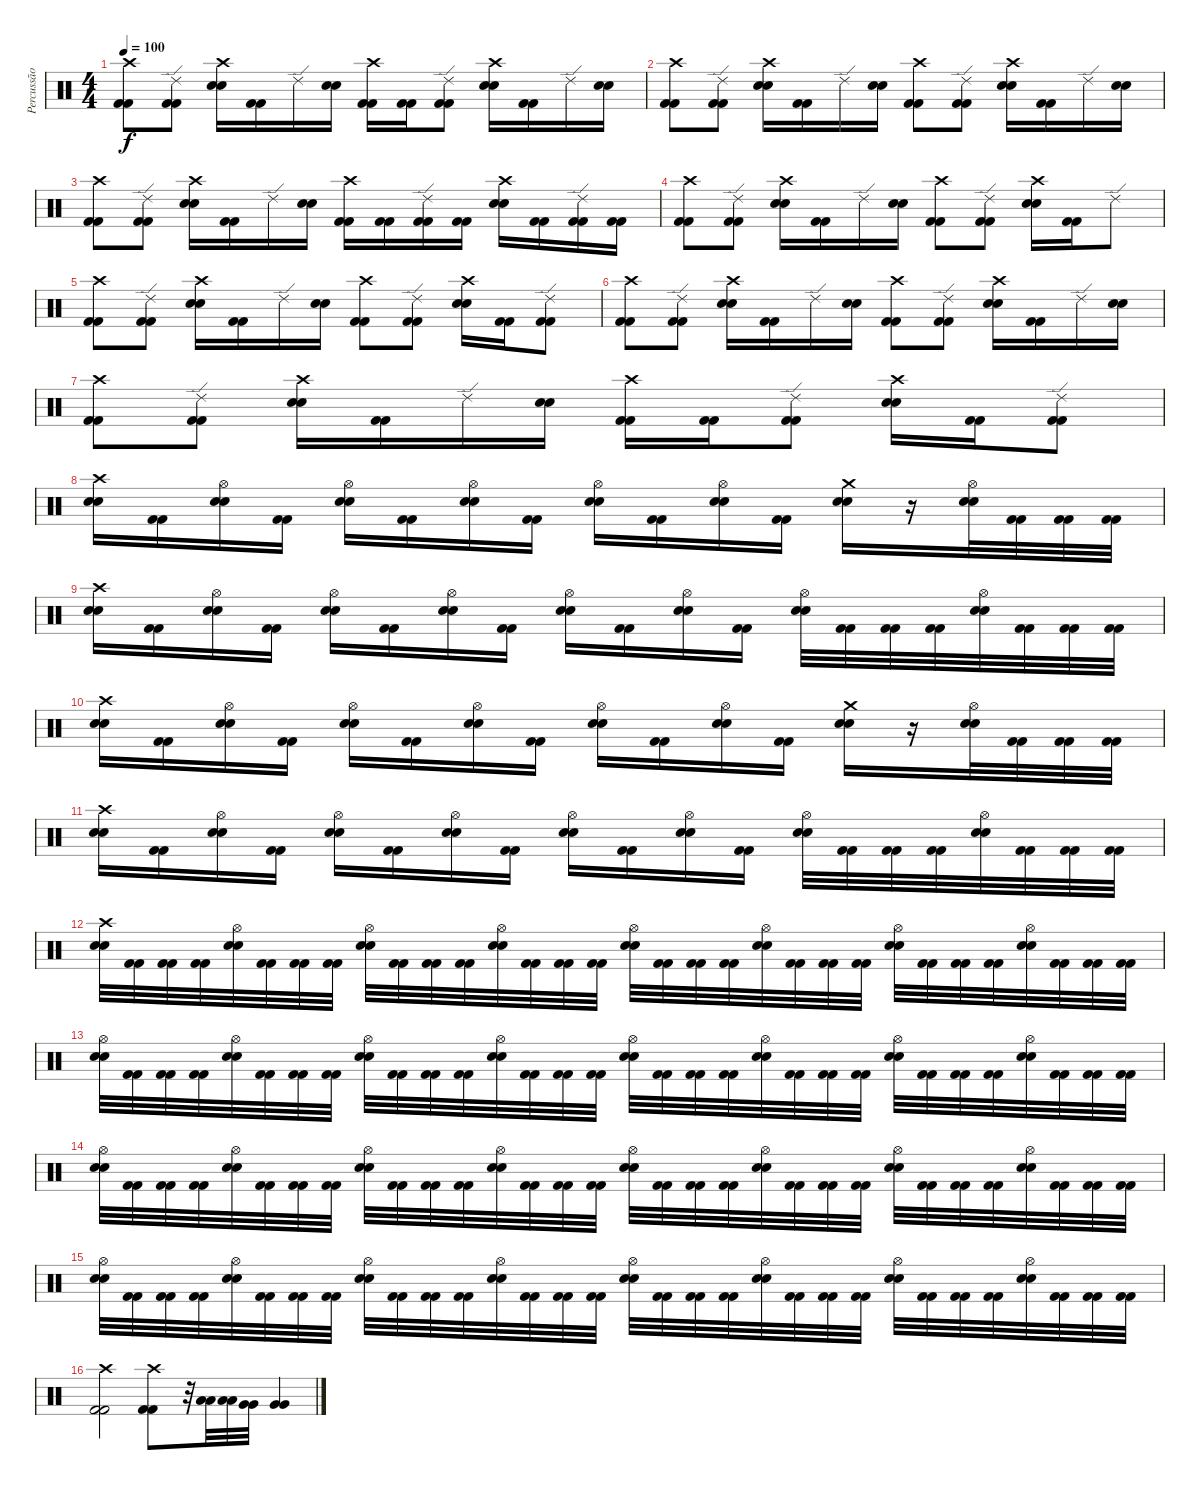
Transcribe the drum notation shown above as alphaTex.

\track ("Percussão" "Percussão") {instrument percussion}
\staff {score}
\articulation defaults
\ts (4 4)
\tempo 100
\clef neutral
\ks c
("Crash high (hit)" "Kick (hit) 2" "Kick (hit) 2").8{dy f} ("Ride (edge) 2" "Kick (hit) 2" "Kick (hit) 2").8 ("Crash high (hit)" "Electric Snare (hit)" "Electric Snare (hit)").16 ("Kick (hit) 2" "Kick (hit) 2").16 "Ride (edge) 2".16 ("Electric Snare (hit)" "Electric Snare (hit)").16 ("Crash high (hit)" "Kick (hit) 2" "Kick (hit) 2").16 ("Kick (hit) 2" "Kick (hit) 2").16 ("Ride (edge) 2" "Kick (hit) 2" "Kick (hit) 2").8 ("Crash high (hit)" "Electric Snare (hit)" "Electric Snare (hit)").16 ("Kick (hit) 2" "Kick (hit) 2").16 "Ride (edge) 2".16 ("Electric Snare (hit)" "Electric Snare (hit)").16 |
("Crash high (hit)" "Kick (hit) 2" "Kick (hit) 2").8 ("Ride (edge) 2" "Kick (hit) 2" "Kick (hit) 2").8 ("Crash high (hit)" "Electric Snare (hit)" "Electric Snare (hit)").16 ("Kick (hit) 2" "Kick (hit) 2").16 "Ride (edge) 2".16 ("Electric Snare (hit)" "Electric Snare (hit)").16 ("Crash high (hit)" "Kick (hit) 2" "Kick (hit) 2").8 ("Ride (edge) 2" "Kick (hit) 2" "Kick (hit) 2").8 ("Crash high (hit)" "Electric Snare (hit)" "Electric Snare (hit)").16 ("Kick (hit) 2" "Kick (hit) 2").16 "Ride (edge) 2".16 ("Electric Snare (hit)" "Electric Snare (hit)").16 |
("Crash high (hit)" "Kick (hit) 2" "Kick (hit) 2").8 ("Ride (edge) 2" "Kick (hit) 2" "Kick (hit) 2").8 ("Crash high (hit)" "Electric Snare (hit)" "Electric Snare (hit)").16 ("Kick (hit) 2" "Kick (hit) 2").16 "Ride (edge) 2".16 ("Electric Snare (hit)" "Electric Snare (hit)").16 ("Crash high (hit)" "Kick (hit) 2" "Kick (hit) 2").16 ("Kick (hit) 2" "Kick (hit) 2").16 ("Ride (edge) 2" "Kick (hit) 2" "Kick (hit) 2").16 ("Kick (hit) 2" "Kick (hit) 2").16 ("Crash high (hit)" "Electric Snare (hit)" "Electric Snare (hit)").16 ("Kick (hit) 2" "Kick (hit) 2").16 ("Ride (edge) 2" "Kick (hit) 2" "Kick (hit) 2").16 ("Kick (hit) 2" "Kick (hit) 2").16 |
("Crash high (hit)" "Kick (hit) 2" "Kick (hit) 2").8 ("Ride (edge) 2" "Kick (hit) 2" "Kick (hit) 2").8 ("Crash high (hit)" "Electric Snare (hit)" "Electric Snare (hit)").16 ("Kick (hit) 2" "Kick (hit) 2").16 "Ride (edge) 2".16 ("Electric Snare (hit)" "Electric Snare (hit)").16 ("Crash high (hit)" "Kick (hit) 2" "Kick (hit) 2").8 ("Ride (edge) 2" "Kick (hit) 2" "Kick (hit) 2").8 ("Crash high (hit)" "Electric Snare (hit)" "Electric Snare (hit)").16 ("Kick (hit) 2" "Kick (hit) 2").16 "Ride (edge) 2".8 |
("Crash high (hit)" "Kick (hit) 2" "Kick (hit) 2").8 ("Ride (edge) 2" "Kick (hit) 2" "Kick (hit) 2").8 ("Crash high (hit)" "Electric Snare (hit)" "Electric Snare (hit)").16 ("Kick (hit) 2" "Kick (hit) 2").16 "Ride (edge) 2".16 ("Electric Snare (hit)" "Electric Snare (hit)").16 ("Crash high (hit)" "Kick (hit) 2" "Kick (hit) 2").8 ("Ride (edge) 2" "Kick (hit) 2" "Kick (hit) 2").8 ("Crash high (hit)" "Electric Snare (hit)" "Electric Snare (hit)").16 ("Kick (hit) 2" "Kick (hit) 2").16 ("Ride (edge) 2" "Kick (hit) 2" "Kick (hit) 2").8 |
("Crash high (hit)" "Kick (hit) 2" "Kick (hit) 2").8 ("Ride (edge) 2" "Kick (hit) 2" "Kick (hit) 2").8 ("Crash high (hit)" "Electric Snare (hit)" "Electric Snare (hit)").16 ("Kick (hit) 2" "Kick (hit) 2").16 "Ride (edge) 2".16 ("Electric Snare (hit)" "Electric Snare (hit)").16 ("Crash high (hit)" "Kick (hit) 2" "Kick (hit) 2").8 ("Ride (edge) 2" "Kick (hit) 2" "Kick (hit) 2").8 ("Crash high (hit)" "Electric Snare (hit)" "Electric Snare (hit)").16 ("Kick (hit) 2" "Kick (hit) 2").16 "Ride (edge) 2".16 ("Electric Snare (hit)" "Electric Snare (hit)").16 |
("Crash high (hit)" "Kick (hit) 2" "Kick (hit) 2").8 ("Ride (edge) 2" "Kick (hit) 2" "Kick (hit) 2").8 ("Crash high (hit)" "Electric Snare (hit)" "Electric Snare (hit)").16 ("Kick (hit) 2" "Kick (hit) 2").16 "Ride (edge) 2".16 ("Electric Snare (hit)" "Electric Snare (hit)").16 ("Crash high (hit)" "Kick (hit) 2" "Kick (hit) 2").16 ("Kick (hit) 2" "Kick (hit) 2").16 ("Ride (edge) 2" "Kick (hit) 2" "Kick (hit) 2").8 ("Crash high (hit)" "Electric Snare (hit)" "Electric Snare (hit)").16 ("Kick (hit) 2" "Kick (hit) 2").16 ("Ride (edge) 2" "Kick (hit) 2" "Kick (hit) 2").8 |
("Crash high (hit)" "Electric Snare (hit)" "Electric Snare (hit)").16 ("Kick (hit) 2" "Kick (hit) 2").16 ("Hi-Hat (open)" "Electric Snare (hit)" "Electric Snare (hit)").16 ("Kick (hit) 2" "Kick (hit) 2").16 ("Hi-Hat (open)" "Electric Snare (hit)" "Electric Snare (hit)").16 ("Kick (hit) 2" "Kick (hit) 2").16 ("Hi-Hat (open)" "Electric Snare (hit)" "Electric Snare (hit)").16 ("Kick (hit) 2" "Kick (hit) 2").16 ("Hi-Hat (open)" "Electric Snare (hit)" "Electric Snare (hit)").16 ("Kick (hit) 2" "Kick (hit) 2").16 ("Hi-Hat (open)" "Electric Snare (hit)" "Electric Snare (hit)").16 ("Kick (hit) 2" "Kick (hit) 2").16 ("Crash medium (hit)" "Electric Snare (hit)" "Electric Snare (hit)").16 r.16 ("Hi-Hat (open)" "Electric Snare (hit)" "Electric Snare (hit)").32 ("Kick (hit) 2" "Kick (hit) 2").32 ("Kick (hit) 2" "Kick (hit) 2").32 ("Kick (hit) 2" "Kick (hit) 2").32 |
("Crash high (hit)" "Electric Snare (hit)" "Electric Snare (hit)").16 ("Kick (hit) 2" "Kick (hit) 2").16 ("Hi-Hat (open)" "Electric Snare (hit)" "Electric Snare (hit)").16 ("Kick (hit) 2" "Kick (hit) 2").16 ("Hi-Hat (open)" "Electric Snare (hit)" "Electric Snare (hit)").16 ("Kick (hit) 2" "Kick (hit) 2").16 ("Hi-Hat (open)" "Electric Snare (hit)" "Electric Snare (hit)").16 ("Kick (hit) 2" "Kick (hit) 2").16 ("Hi-Hat (open)" "Electric Snare (hit)" "Electric Snare (hit)").16 ("Kick (hit) 2" "Kick (hit) 2").16 ("Hi-Hat (open)" "Electric Snare (hit)" "Electric Snare (hit)").16 ("Kick (hit) 2" "Kick (hit) 2").16 ("Hi-Hat (open)" "Electric Snare (hit)" "Electric Snare (hit)").32 ("Kick (hit) 2" "Kick (hit) 2").32 ("Kick (hit) 2" "Kick (hit) 2").32 ("Kick (hit) 2" "Kick (hit) 2").32 ("Hi-Hat (open)" "Electric Snare (hit)" "Electric Snare (hit)").32 ("Kick (hit) 2" "Kick (hit) 2").32 ("Kick (hit) 2" "Kick (hit) 2").32 ("Kick (hit) 2" "Kick (hit) 2").32 |
("Crash high (hit)" "Electric Snare (hit)" "Electric Snare (hit)").16 ("Kick (hit) 2" "Kick (hit) 2").16 ("Hi-Hat (open)" "Electric Snare (hit)" "Electric Snare (hit)").16 ("Kick (hit) 2" "Kick (hit) 2").16 ("Hi-Hat (open)" "Electric Snare (hit)" "Electric Snare (hit)").16 ("Kick (hit) 2" "Kick (hit) 2").16 ("Hi-Hat (open)" "Electric Snare (hit)" "Electric Snare (hit)").16 ("Kick (hit) 2" "Kick (hit) 2").16 ("Hi-Hat (open)" "Electric Snare (hit)" "Electric Snare (hit)").16 ("Kick (hit) 2" "Kick (hit) 2").16 ("Hi-Hat (open)" "Electric Snare (hit)" "Electric Snare (hit)").16 ("Kick (hit) 2" "Kick (hit) 2").16 ("Crash medium (hit)" "Electric Snare (hit)" "Electric Snare (hit)").16 r.16 ("Hi-Hat (open)" "Electric Snare (hit)" "Electric Snare (hit)").32 ("Kick (hit) 2" "Kick (hit) 2").32 ("Kick (hit) 2" "Kick (hit) 2").32 ("Kick (hit) 2" "Kick (hit) 2").32 |
("Crash high (hit)" "Electric Snare (hit)" "Electric Snare (hit)").16 ("Kick (hit) 2" "Kick (hit) 2").16 ("Hi-Hat (open)" "Electric Snare (hit)" "Electric Snare (hit)").16 ("Kick (hit) 2" "Kick (hit) 2").16 ("Hi-Hat (open)" "Electric Snare (hit)" "Electric Snare (hit)").16 ("Kick (hit) 2" "Kick (hit) 2").16 ("Hi-Hat (open)" "Electric Snare (hit)" "Electric Snare (hit)").16 ("Kick (hit) 2" "Kick (hit) 2").16 ("Hi-Hat (open)" "Electric Snare (hit)" "Electric Snare (hit)").16 ("Kick (hit) 2" "Kick (hit) 2").16 ("Hi-Hat (open)" "Electric Snare (hit)" "Electric Snare (hit)").16 ("Kick (hit) 2" "Kick (hit) 2").16 ("Hi-Hat (open)" "Electric Snare (hit)" "Electric Snare (hit)").32 ("Kick (hit) 2" "Kick (hit) 2").32 ("Kick (hit) 2" "Kick (hit) 2").32 ("Kick (hit) 2" "Kick (hit) 2").32 ("Hi-Hat (open)" "Electric Snare (hit)" "Electric Snare (hit)").32 ("Kick (hit) 2" "Kick (hit) 2").32 ("Kick (hit) 2" "Kick (hit) 2").32 ("Kick (hit) 2" "Kick (hit) 2").32 |
("Crash high (hit)" "Electric Snare (hit)" "Electric Snare (hit)").32 ("Kick (hit) 2" "Kick (hit) 2").32 ("Kick (hit) 2" "Kick (hit) 2").32 ("Kick (hit) 2" "Kick (hit) 2").32 ("Hi-Hat (open)" "Electric Snare (hit)" "Electric Snare (hit)").32 ("Kick (hit) 2" "Kick (hit) 2").32 ("Kick (hit) 2" "Kick (hit) 2").32 ("Kick (hit) 2" "Kick (hit) 2").32 ("Hi-Hat (open)" "Electric Snare (hit)" "Electric Snare (hit)").32 ("Kick (hit) 2" "Kick (hit) 2").32 ("Kick (hit) 2" "Kick (hit) 2").32 ("Kick (hit) 2" "Kick (hit) 2").32 ("Hi-Hat (open)" "Electric Snare (hit)" "Electric Snare (hit)").32 ("Kick (hit) 2" "Kick (hit) 2").32 ("Kick (hit) 2" "Kick (hit) 2").32 ("Kick (hit) 2" "Kick (hit) 2").32 ("Hi-Hat (open)" "Electric Snare (hit)" "Electric Snare (hit)").32 ("Kick (hit) 2" "Kick (hit) 2").32 ("Kick (hit) 2" "Kick (hit) 2").32 ("Kick (hit) 2" "Kick (hit) 2").32 ("Hi-Hat (open)" "Electric Snare (hit)" "Electric Snare (hit)").32 ("Kick (hit) 2" "Kick (hit) 2").32 ("Kick (hit) 2" "Kick (hit) 2").32 ("Kick (hit) 2" "Kick (hit) 2").32 ("Hi-Hat (open)" "Electric Snare (hit)" "Electric Snare (hit)").32 ("Kick (hit) 2" "Kick (hit) 2").32 ("Kick (hit) 2" "Kick (hit) 2").32 ("Kick (hit) 2" "Kick (hit) 2").32 ("Hi-Hat (open)" "Electric Snare (hit)" "Electric Snare (hit)").32 ("Kick (hit) 2" "Kick (hit) 2").32 ("Kick (hit) 2" "Kick (hit) 2").32 ("Kick (hit) 2" "Kick (hit) 2").32 |
("Hi-Hat (open)" "Electric Snare (hit)" "Electric Snare (hit)").32 ("Kick (hit) 2" "Kick (hit) 2").32 ("Kick (hit) 2" "Kick (hit) 2").32 ("Kick (hit) 2" "Kick (hit) 2").32 ("Hi-Hat (open)" "Electric Snare (hit)" "Electric Snare (hit)").32 ("Kick (hit) 2" "Kick (hit) 2").32 ("Kick (hit) 2" "Kick (hit) 2").32 ("Kick (hit) 2" "Kick (hit) 2").32 ("Hi-Hat (open)" "Electric Snare (hit)" "Electric Snare (hit)").32 ("Kick (hit) 2" "Kick (hit) 2").32 ("Kick (hit) 2" "Kick (hit) 2").32 ("Kick (hit) 2" "Kick (hit) 2").32 ("Hi-Hat (open)" "Electric Snare (hit)" "Electric Snare (hit)").32 ("Kick (hit) 2" "Kick (hit) 2").32 ("Kick (hit) 2" "Kick (hit) 2").32 ("Kick (hit) 2" "Kick (hit) 2").32 ("Hi-Hat (open)" "Electric Snare (hit)" "Electric Snare (hit)").32 ("Kick (hit) 2" "Kick (hit) 2").32 ("Kick (hit) 2" "Kick (hit) 2").32 ("Kick (hit) 2" "Kick (hit) 2").32 ("Hi-Hat (open)" "Electric Snare (hit)" "Electric Snare (hit)").32 ("Kick (hit) 2" "Kick (hit) 2").32 ("Kick (hit) 2" "Kick (hit) 2").32 ("Kick (hit) 2" "Kick (hit) 2").32 ("Hi-Hat (open)" "Electric Snare (hit)" "Electric Snare (hit)").32 ("Kick (hit) 2" "Kick (hit) 2").32 ("Kick (hit) 2" "Kick (hit) 2").32 ("Kick (hit) 2" "Kick (hit) 2").32 ("Hi-Hat (open)" "Electric Snare (hit)" "Electric Snare (hit)").32 ("Kick (hit) 2" "Kick (hit) 2").32 ("Kick (hit) 2" "Kick (hit) 2").32 ("Kick (hit) 2" "Kick (hit) 2").32 |
("Hi-Hat (open)" "Electric Snare (hit)" "Electric Snare (hit)").32 ("Kick (hit) 2" "Kick (hit) 2").32 ("Kick (hit) 2" "Kick (hit) 2").32 ("Kick (hit) 2" "Kick (hit) 2").32 ("Hi-Hat (open)" "Electric Snare (hit)" "Electric Snare (hit)").32 ("Kick (hit) 2" "Kick (hit) 2").32 ("Kick (hit) 2" "Kick (hit) 2").32 ("Kick (hit) 2" "Kick (hit) 2").32 ("Hi-Hat (open)" "Electric Snare (hit)" "Electric Snare (hit)").32 ("Kick (hit) 2" "Kick (hit) 2").32 ("Kick (hit) 2" "Kick (hit) 2").32 ("Kick (hit) 2" "Kick (hit) 2").32 ("Hi-Hat (open)" "Electric Snare (hit)" "Electric Snare (hit)").32 ("Kick (hit) 2" "Kick (hit) 2").32 ("Kick (hit) 2" "Kick (hit) 2").32 ("Kick (hit) 2" "Kick (hit) 2").32 ("Hi-Hat (open)" "Electric Snare (hit)" "Electric Snare (hit)").32 ("Kick (hit) 2" "Kick (hit) 2").32 ("Kick (hit) 2" "Kick (hit) 2").32 ("Kick (hit) 2" "Kick (hit) 2").32 ("Hi-Hat (open)" "Electric Snare (hit)" "Electric Snare (hit)").32 ("Kick (hit) 2" "Kick (hit) 2").32 ("Kick (hit) 2" "Kick (hit) 2").32 ("Kick (hit) 2" "Kick (hit) 2").32 ("Hi-Hat (open)" "Electric Snare (hit)" "Electric Snare (hit)").32 ("Kick (hit) 2" "Kick (hit) 2").32 ("Kick (hit) 2" "Kick (hit) 2").32 ("Kick (hit) 2" "Kick (hit) 2").32 ("Hi-Hat (open)" "Electric Snare (hit)" "Electric Snare (hit)").32 ("Kick (hit) 2" "Kick (hit) 2").32 ("Kick (hit) 2" "Kick (hit) 2").32 ("Kick (hit) 2" "Kick (hit) 2").32 |
("Hi-Hat (open)" "Electric Snare (hit)" "Electric Snare (hit)").32 ("Kick (hit) 2" "Kick (hit) 2").32 ("Kick (hit) 2" "Kick (hit) 2").32 ("Kick (hit) 2" "Kick (hit) 2").32 ("Hi-Hat (open)" "Electric Snare (hit)" "Electric Snare (hit)").32 ("Kick (hit) 2" "Kick (hit) 2").32 ("Kick (hit) 2" "Kick (hit) 2").32 ("Kick (hit) 2" "Kick (hit) 2").32 ("Hi-Hat (open)" "Electric Snare (hit)" "Electric Snare (hit)").32 ("Kick (hit) 2" "Kick (hit) 2").32 ("Kick (hit) 2" "Kick (hit) 2").32 ("Kick (hit) 2" "Kick (hit) 2").32 ("Hi-Hat (open)" "Electric Snare (hit)" "Electric Snare (hit)").32 ("Kick (hit) 2" "Kick (hit) 2").32 ("Kick (hit) 2" "Kick (hit) 2").32 ("Kick (hit) 2" "Kick (hit) 2").32 ("Hi-Hat (open)" "Electric Snare (hit)" "Electric Snare (hit)").32 ("Kick (hit) 2" "Kick (hit) 2").32 ("Kick (hit) 2" "Kick (hit) 2").32 ("Kick (hit) 2" "Kick (hit) 2").32 ("Hi-Hat (open)" "Electric Snare (hit)" "Electric Snare (hit)").32 ("Kick (hit) 2" "Kick (hit) 2").32 ("Kick (hit) 2" "Kick (hit) 2").32 ("Kick (hit) 2" "Kick (hit) 2").32 ("Hi-Hat (open)" "Electric Snare (hit)" "Electric Snare (hit)").32 ("Kick (hit) 2" "Kick (hit) 2").32 ("Kick (hit) 2" "Kick (hit) 2").32 ("Kick (hit) 2" "Kick (hit) 2").32 ("Hi-Hat (open)" "Electric Snare (hit)" "Electric Snare (hit)").32 ("Kick (hit) 2" "Kick (hit) 2").32 ("Kick (hit) 2" "Kick (hit) 2").32 ("Kick (hit) 2" "Kick (hit) 2").32 |
("Crash high (hit)" "Kick (hit) 2" "Kick (hit) 2").2 ("Crash high (hit)" "Kick (hit) 2" "Kick (hit) 2").8 r.32 ("Low Tom (hit)" "Low Tom (hit)").32 ("Low Tom (hit)" "Low Tom (hit)").32 ("Very Low Tom (hit)" "Very Low Tom (hit)").32 ("Very Low Tom (hit)" "Very Low Tom (hit)").4
